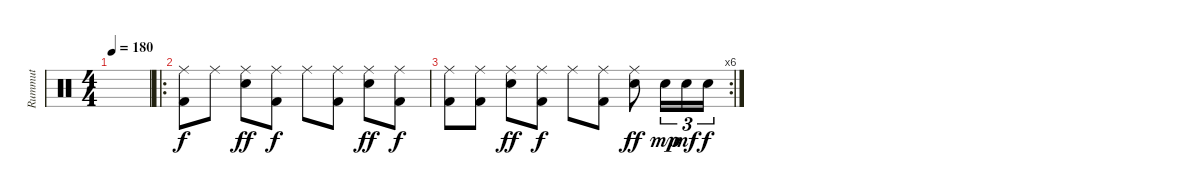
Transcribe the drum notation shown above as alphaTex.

\track ("Rummut" "Rummut") {instrument percussion}
\staff {score}
\articulation defaults
\ts (4 4)
\tempo 180
\clef neutral
\ks c
|
\ro
("Ride (middle)" "Kick (hit) 2").8 "Ride (middle)".8 ("Ride (middle)" "Electric Snare (hit)").8{dy ff} ("Ride (middle)" "Kick (hit) 2").8{dy f} "Ride (middle)".8 ("Ride (middle)" "Kick (hit) 2").8 ("Ride (middle)" "Electric Snare (hit)").8{dy ff} ("Ride (middle)" "Kick (hit) 2").8{dy f} |
\rc 6
("Ride (middle)" "Kick (hit) 2").8 ("Ride (middle)" "Kick (hit) 2").8 ("Ride (middle)" "Electric Snare (hit)").8{dy ff} ("Ride (middle)" "Kick (hit) 2").8{dy f} "Ride (middle)".8 ("Ride (middle)" "Kick (hit) 2").8 ("Ride (middle)" "Electric Snare (hit)").8{dy ff} "Electric Snare (hit)".16{tu (3 2) dy mp} "Electric Snare (hit)".16{tu (3 2) dy mf} "Electric Snare (hit)".16{tu (3 2) dy f}
